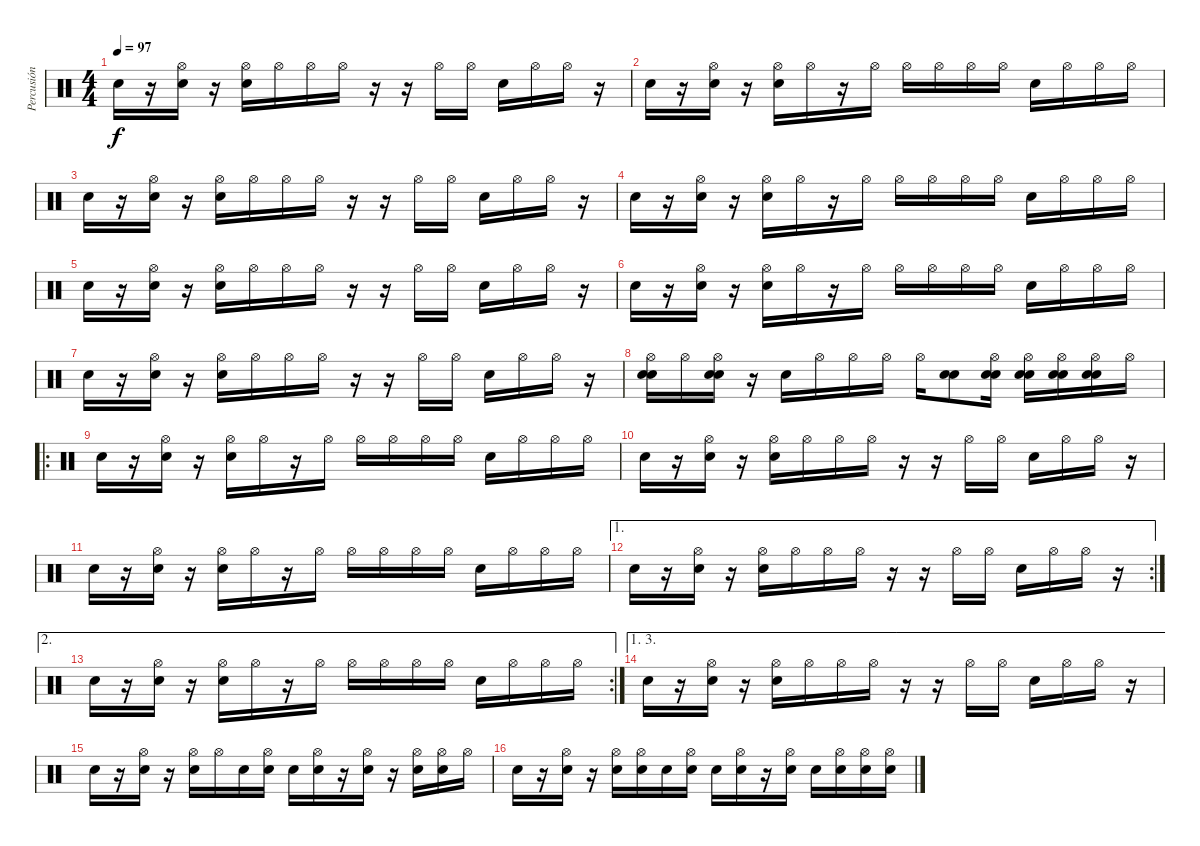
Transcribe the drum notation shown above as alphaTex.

\track ("Percusión" "Percusión") {instrument percussion}
\staff {score}
\articulation defaults
\ts (4 4)
\tempo 97
\clef neutral
\ks c "Snare (hit) 2".16{dy f}
r.16 ("Hi-Hat (open)" "Snare (hit) 2").16 r.16 ("Hi-Hat (open)" "Electric Snare (hit)").16 "Hi-Hat (open)".16 "Hi-Hat (open)".16 "Hi-Hat (open)".16 r.16 r.16 "Hi-Hat (open)".16 "Hi-Hat (open)".16 "Electric Snare (hit)".16 "Hi-Hat (open)".16 "Hi-Hat (open)".16 r.16 |
"Snare (hit) 2".16 r.16 ("Hi-Hat (open)" "Snare (hit) 2").16 r.16 ("Hi-Hat (open)" "Electric Snare (hit)").16 "Hi-Hat (open)".16 r.16 "Hi-Hat (open)".16 "Hi-Hat (open)".16 "Hi-Hat (open)".16 "Hi-Hat (open)".16 "Hi-Hat (open)".16 "Electric Snare (hit)".16 "Hi-Hat (open)".16 "Hi-Hat (open)".16 "Hi-Hat (open)".16 |
"Snare (hit) 2".16 r.16 ("Hi-Hat (open)" "Snare (hit) 2").16 r.16 ("Hi-Hat (open)" "Electric Snare (hit)").16 "Hi-Hat (open)".16 "Hi-Hat (open)".16 "Hi-Hat (open)".16 r.16 r.16 "Hi-Hat (open)".16 "Hi-Hat (open)".16 "Electric Snare (hit)".16 "Hi-Hat (open)".16 "Hi-Hat (open)".16 r.16 |
"Snare (hit) 2".16 r.16 ("Hi-Hat (open)" "Snare (hit) 2").16 r.16 ("Hi-Hat (open)" "Electric Snare (hit)").16 "Hi-Hat (open)".16 r.16 "Hi-Hat (open)".16 "Hi-Hat (open)".16 "Hi-Hat (open)".16 "Hi-Hat (open)".16 "Hi-Hat (open)".16 "Electric Snare (hit)".16 "Hi-Hat (open)".16 "Hi-Hat (open)".16 "Hi-Hat (open)".16 |
"Snare (hit) 2".16 r.16 ("Hi-Hat (open)" "Snare (hit) 2").16 r.16 ("Hi-Hat (open)" "Electric Snare (hit)").16 "Hi-Hat (open)".16 "Hi-Hat (open)".16 "Hi-Hat (open)".16 r.16 r.16 "Hi-Hat (open)".16 "Hi-Hat (open)".16 "Electric Snare (hit)".16 "Hi-Hat (open)".16 "Hi-Hat (open)".16 r.16 |
"Snare (hit) 2".16 r.16 ("Hi-Hat (open)" "Snare (hit) 2").16 r.16 ("Hi-Hat (open)" "Electric Snare (hit)").16 "Hi-Hat (open)".16 r.16 "Hi-Hat (open)".16 "Hi-Hat (open)".16 "Hi-Hat (open)".16 "Hi-Hat (open)".16 "Hi-Hat (open)".16 "Electric Snare (hit)".16 "Hi-Hat (open)".16 "Hi-Hat (open)".16 "Hi-Hat (open)".16 |
"Snare (hit) 2".16 r.16 ("Hi-Hat (open)" "Snare (hit) 2").16 r.16 ("Hi-Hat (open)" "Electric Snare (hit)").16 "Hi-Hat (open)".16 "Hi-Hat (open)".16 "Hi-Hat (open)".16 r.16 r.16 "Hi-Hat (open)".16 "Hi-Hat (open)".16 "Electric Snare (hit)".16 "Hi-Hat (open)".16 "Hi-Hat (open)".16 r.16 |
("Hi-Hat (open)" "Snare (hit) 2" "Snare (hit) 2").16 "Hi-Hat (open)".16 ("Hi-Hat (open)" "Snare (hit) 2" "Snare (hit) 2").16 r.16 "Electric Snare (hit)".16 "Hi-Hat (open)".16 "Hi-Hat (open)".16 "Hi-Hat (open)".16 "Hi-Hat (open)".16 ("Snare (hit) 2" "Snare (hit) 2").8 ("Hi-Hat (open)" "Snare (hit) 2" "Snare (hit) 2").16 ("Hi-Hat (open)" "Electric Snare (hit)" "Electric Snare (hit)").16 ("Hi-Hat (open)" "Electric Snare (hit)" "Electric Snare (hit)").16 ("Hi-Hat (open)" "Snare (hit) 2" "Snare (hit) 2").16 "Hi-Hat (open)".16 |
\ro "Snare (hit) 2".16
r.16 ("Hi-Hat (open)" "Snare (hit) 2").16 r.16 ("Hi-Hat (open)" "Electric Snare (hit)").16 "Hi-Hat (open)".16 r.16 "Hi-Hat (open)".16 "Hi-Hat (open)".16 "Hi-Hat (open)".16 "Hi-Hat (open)".16 "Hi-Hat (open)".16 "Electric Snare (hit)".16 "Hi-Hat (open)".16 "Hi-Hat (open)".16 "Hi-Hat (open)".16 |
"Snare (hit) 2".16 r.16 ("Hi-Hat (open)" "Snare (hit) 2").16 r.16 ("Hi-Hat (open)" "Electric Snare (hit)").16 "Hi-Hat (open)".16 "Hi-Hat (open)".16 "Hi-Hat (open)".16 r.16 r.16 "Hi-Hat (open)".16 "Hi-Hat (open)".16 "Electric Snare (hit)".16 "Hi-Hat (open)".16 "Hi-Hat (open)".16 r.16 |
"Snare (hit) 2".16 r.16 ("Hi-Hat (open)" "Snare (hit) 2").16 r.16 ("Hi-Hat (open)" "Electric Snare (hit)").16 "Hi-Hat (open)".16 r.16 "Hi-Hat (open)".16 "Hi-Hat (open)".16 "Hi-Hat (open)".16 "Hi-Hat (open)".16 "Hi-Hat (open)".16 "Electric Snare (hit)".16 "Hi-Hat (open)".16 "Hi-Hat (open)".16 "Hi-Hat (open)".16 |
\ae 1
\rc 2 "Snare (hit) 2".16
r.16 ("Hi-Hat (open)" "Snare (hit) 2").16 r.16 ("Hi-Hat (open)" "Electric Snare (hit)").16 "Hi-Hat (open)".16 "Hi-Hat (open)".16 "Hi-Hat (open)".16 r.16 r.16 "Hi-Hat (open)".16 "Hi-Hat (open)".16 "Electric Snare (hit)".16 "Hi-Hat (open)".16 "Hi-Hat (open)".16 r.16 |
\ae 2
\rc 2 "Snare (hit) 2".16
r.16 ("Hi-Hat (open)" "Snare (hit) 2").16 r.16 ("Hi-Hat (open)" "Electric Snare (hit)").16 "Hi-Hat (open)".16 r.16 "Hi-Hat (open)".16 "Hi-Hat (open)".16 "Hi-Hat (open)".16 "Hi-Hat (open)".16 "Hi-Hat (open)".16 "Electric Snare (hit)".16 "Hi-Hat (open)".16 "Hi-Hat (open)".16 "Hi-Hat (open)".16 |
\ae (1 3)
"Snare (hit) 2".16 r.16 ("Hi-Hat (open)" "Snare (hit) 2").16 r.16 ("Hi-Hat (open)" "Electric Snare (hit)").16 "Hi-Hat (open)".16 "Hi-Hat (open)".16 "Hi-Hat (open)".16 r.16 r.16 "Hi-Hat (open)".16 "Hi-Hat (open)".16 "Electric Snare (hit)".16 "Hi-Hat (open)".16 "Hi-Hat (open)".16 r.16 |
"Snare (hit) 2".16 r.16 ("Hi-Hat (open)" "Snare (hit) 2").16 r.16 ("Hi-Hat (open)" "Electric Snare (hit)").16 "Hi-Hat (open)".16 "Electric Snare (hit)".16 ("Hi-Hat (open)" "Snare (hit) 2").16 "Electric Snare (hit)".16 ("Hi-Hat (open)" "Snare (hit) 2").16 r.16 ("Hi-Hat (open)" "Electric Snare (hit)").16 r.16 ("Hi-Hat (open)" "Snare (hit) 2").16 ("Hi-Hat (open)" "Electric Snare (hit)").16 "Hi-Hat (open)".16 |
"Snare (hit) 2".16 r.16 ("Hi-Hat (open)" "Snare (hit) 2").16 r.16 ("Hi-Hat (open)" "Electric Snare (hit)").16 ("Hi-Hat (open)" "Snare (hit) 2").16 "Snare (hit) 2".16 ("Hi-Hat (open)" "Electric Snare (hit)").16 "Snare (hit) 2".16 ("Hi-Hat (open)" "Electric Snare (hit)").16 r.16 ("Hi-Hat (open)" "Electric Snare (hit)").16 "Snare (hit) 2".16 ("Hi-Hat (open)" "Electric Snare (hit)").16 ("Hi-Hat (open)" "Snare (hit) 2").16 ("Hi-Hat (open)" "Electric Snare (hit)").16
